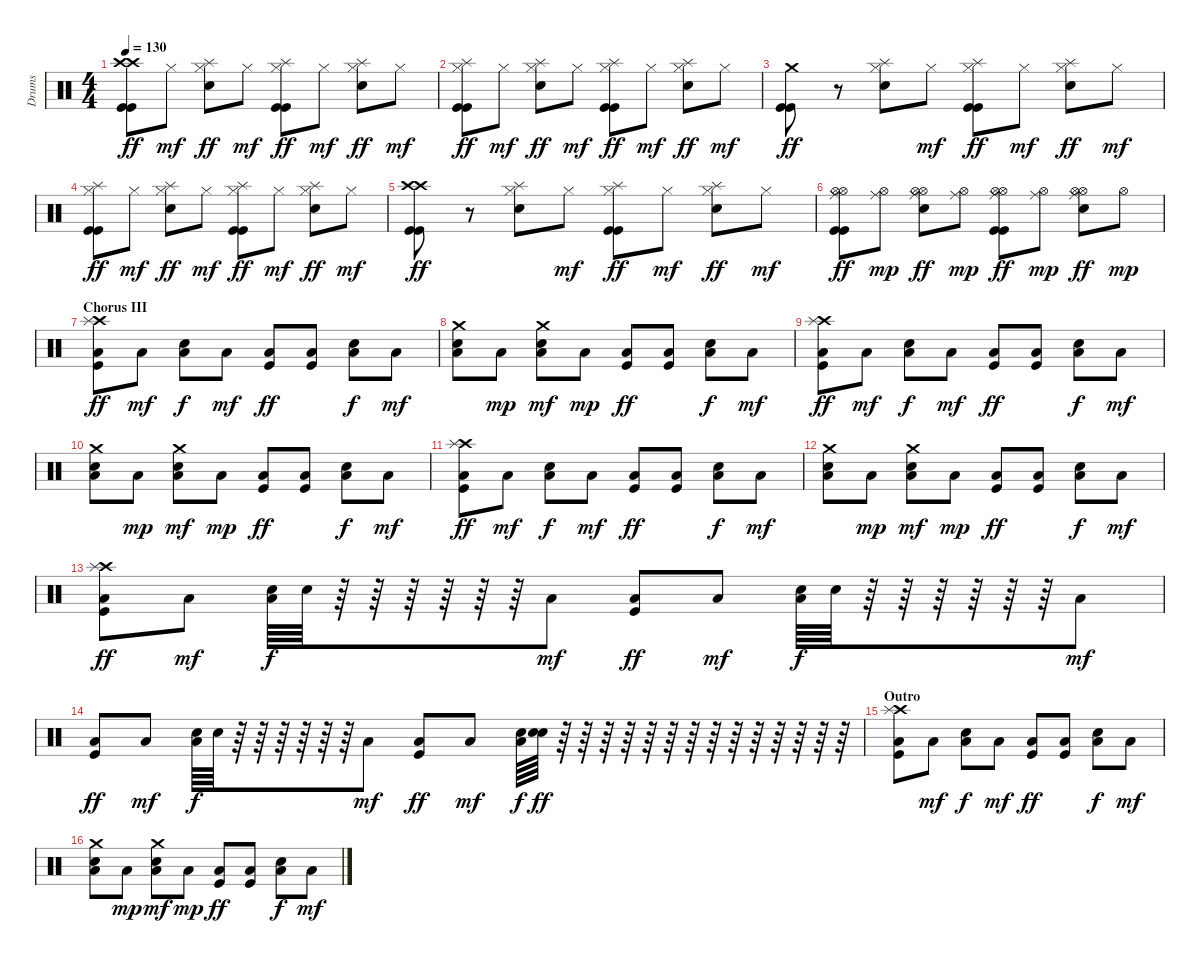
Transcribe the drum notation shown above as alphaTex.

\track ("Drums" "Drums") {instrument percussion}
\staff {score}
\articulation defaults
\ts (4 4)
\tempo 130
\clef neutral
\ks c
("Crash high (hit)" "Crash high (hit)" "Kick (hit)" "Kick (hit)").8{dy ff} "Hi-Hat (closed)".8{dy mf} ("Hi-Hat (closed)" "Splash (hit)" "Snare (hit) 2").8{dy ff} "Hi-Hat (closed)".8{dy mf} ("Hi-Hat (closed)" "Splash (hit)" "Kick (hit)" "Kick (hit)").8{dy ff} "Hi-Hat (closed)".8{dy mf} ("Hi-Hat (closed)" "Splash (hit)" "Snare (hit) 2").8{dy ff} "Hi-Hat (closed)".8{dy mf} |
("Hi-Hat (closed)" "Splash (hit)" "Kick (hit)" "Kick (hit)").8{dy ff} "Hi-Hat (closed)".8{dy mf} ("Hi-Hat (closed)" "Splash (hit)" "Snare (hit) 2").8{dy ff} "Hi-Hat (closed)".8{dy mf} ("Hi-Hat (closed)" "Splash (hit)" "Kick (hit)" "Kick (hit)").8{dy ff} "Hi-Hat (closed)".8{dy mf} ("Hi-Hat (closed)" "Splash (hit)" "Snare (hit) 2").8{dy ff} "Hi-Hat (closed)".8{dy mf} |
("Crash medium (hit)" "Kick (hit)" "Kick (hit)").8{dy ff} r.8 ("Hi-Hat (closed)" "Splash (hit)" "Snare (hit) 2").8 "Hi-Hat (closed)".8{dy mf} ("Hi-Hat (closed)" "Splash (hit)" "Kick (hit)" "Kick (hit)").8{dy ff} "Hi-Hat (closed)".8{dy mf} ("Hi-Hat (closed)" "Splash (hit)" "Snare (hit) 2").8{dy ff} "Hi-Hat (closed)".8{dy mf} |
("Hi-Hat (closed)" "Splash (hit)" "Kick (hit)" "Kick (hit)").8{dy ff} "Hi-Hat (closed)".8{dy mf} ("Hi-Hat (closed)" "Splash (hit)" "Snare (hit) 2").8{dy ff} "Hi-Hat (closed)".8{dy mf} ("Hi-Hat (closed)" "Splash (hit)" "Kick (hit)" "Kick (hit)").8{dy ff} "Hi-Hat (closed)".8{dy mf} ("Hi-Hat (closed)" "Splash (hit)" "Snare (hit) 2").8{dy ff} "Hi-Hat (closed)".8{dy mf} |
("Crash high (hit)" "Crash high (hit)" "Kick (hit)" "Kick (hit)").8{dy ff} r.8 ("Hi-Hat (closed)" "Splash (hit)" "Snare (hit) 2").8 "Hi-Hat (closed)".8{dy mf} ("Hi-Hat (closed)" "Splash (hit)" "Kick (hit)" "Kick (hit)").8{dy ff} "Hi-Hat (closed)".8{dy mf} ("Hi-Hat (closed)" "Splash (hit)" "Snare (hit) 2").8{dy ff} "Hi-Hat (closed)".8{dy mf} |
("Hi-Hat (open)" "Hi-Hat (open)" "Ride (middle)" "Kick (hit)" "Kick (hit)").8{dy ff} ("Hi-Hat (open)" "Ride (middle)").8{dy mp} ("Hi-Hat (open)" "Hi-Hat (open)" "Ride (middle)" "Snare (hit) 2").8{dy ff} ("Hi-Hat (open)" "Ride (middle)").8{dy mp} ("Hi-Hat (open)" "Hi-Hat (open)" "Ride (middle)" "Kick (hit)" "Kick (hit)").8{dy ff} ("Hi-Hat (open)" "Ride (middle)").8{dy mp} ("Hi-Hat (open)" "Hi-Hat (open)" "Ride (middle)" "Snare (hit) 2").8{dy ff} "Hi-Hat (open)".8{dy mp} |
\section ("" "Chorus III")
("Crash high (hit)" "Splash (hit)" "Low Floor Tom (hit)" "Kick (hit)").8{dy ff} "Low Floor Tom (hit)".8{dy mf} ("Snare (hit) 2" "Low Floor Tom (hit)").8{dy f} "Low Floor Tom (hit)".8{dy mf} ("Low Floor Tom (hit)" "Kick (hit)").8{dy ff} ("Low Floor Tom (hit)" "Kick (hit)").8 ("Snare (hit) 2" "Low Floor Tom (hit)").8{dy f} "Low Floor Tom (hit)".8{dy mf} |
("Crash medium (hit)" "Snare (hit) 2" "Low Floor Tom (hit)").8 "Low Floor Tom (hit)".8{dy mp} ("Crash medium (hit)" "Snare (hit) 2" "Low Floor Tom (hit)").8{dy mf} "Low Floor Tom (hit)".8{dy mp} ("Low Floor Tom (hit)" "Kick (hit)").8{dy ff} ("Low Floor Tom (hit)" "Kick (hit)").8 ("Snare (hit) 2" "Low Floor Tom (hit)").8{dy f} "Low Floor Tom (hit)".8{dy mf} |
("Crash high (hit)" "Splash (hit)" "Low Floor Tom (hit)" "Kick (hit)").8{dy ff} "Low Floor Tom (hit)".8{dy mf} ("Snare (hit) 2" "Low Floor Tom (hit)").8{dy f} "Low Floor Tom (hit)".8{dy mf} ("Low Floor Tom (hit)" "Kick (hit)").8{dy ff} ("Low Floor Tom (hit)" "Kick (hit)").8 ("Snare (hit) 2" "Low Floor Tom (hit)").8{dy f} "Low Floor Tom (hit)".8{dy mf} |
("Crash medium (hit)" "Snare (hit) 2" "Low Floor Tom (hit)").8 "Low Floor Tom (hit)".8{dy mp} ("Crash medium (hit)" "Snare (hit) 2" "Low Floor Tom (hit)").8{dy mf} "Low Floor Tom (hit)".8{dy mp} ("Low Floor Tom (hit)" "Kick (hit)").8{dy ff} ("Low Floor Tom (hit)" "Kick (hit)").8 ("Snare (hit) 2" "Low Floor Tom (hit)").8{dy f} "Low Floor Tom (hit)".8{dy mf} |
("Crash high (hit)" "Splash (hit)" "Low Floor Tom (hit)" "Kick (hit)").8{dy ff} "Low Floor Tom (hit)".8{dy mf} ("Snare (hit) 2" "Low Floor Tom (hit)").8{dy f} "Low Floor Tom (hit)".8{dy mf} ("Low Floor Tom (hit)" "Kick (hit)").8{dy ff} ("Low Floor Tom (hit)" "Kick (hit)").8 ("Snare (hit) 2" "Low Floor Tom (hit)").8{dy f} "Low Floor Tom (hit)".8{dy mf} |
("Crash medium (hit)" "Snare (hit) 2" "Low Floor Tom (hit)").8 "Low Floor Tom (hit)".8{dy mp} ("Crash medium (hit)" "Snare (hit) 2" "Low Floor Tom (hit)").8{dy mf} "Low Floor Tom (hit)".8{dy mp} ("Low Floor Tom (hit)" "Kick (hit)").8{dy ff} ("Low Floor Tom (hit)" "Kick (hit)").8 ("Snare (hit) 2" "Low Floor Tom (hit)").8{dy f} "Low Floor Tom (hit)".8{dy mf} |
("Crash high (hit)" "Splash (hit)" "Low Floor Tom (hit)" "Kick (hit)").8{dy ff} "Low Floor Tom (hit)".8{dy mf} ("Snare (hit) 2" "Low Floor Tom (hit)").64{dy f} "Snare (hit) 2".64 r.64 r.64 r.64 r.64 r.64 r.64 "Low Floor Tom (hit)".8{dy mf} ("Low Floor Tom (hit)" "Kick (hit)").8{dy ff} "Low Floor Tom (hit)".8{dy mf} ("Snare (hit) 2" "Low Floor Tom (hit)").64{dy f} "Snare (hit) 2".64 r.64 r.64 r.64 r.64 r.64 r.64 "Low Floor Tom (hit)".8{dy mf} |
("Low Floor Tom (hit)" "Kick (hit)").8{dy ff} "Low Floor Tom (hit)".8{dy mf} ("Snare (hit) 2" "Low Floor Tom (hit)").64{dy f} "Snare (hit) 2".64 r.64 r.64 r.64 r.64 r.64 r.64 "Low Floor Tom (hit)".8{dy mf} ("Low Floor Tom (hit)" "Kick (hit)").8{dy ff} "Low Floor Tom (hit)".8{dy mf} ("Snare (hit) 2" "Low Floor Tom (hit)").64{dy f} ("Snare (hit) 2" "Snare (hit) 2").64{dy ff} r.64 r.64 r.64 r.64 r.64 r.64 r.64 r.64 r.64 r.64 r.64 r.64 r.64 r.64 |
\section ("" "Outro")
("Crash high (hit)" "Splash (hit)" "Low Floor Tom (hit)" "Kick (hit)").8 "Low Floor Tom (hit)".8{dy mf} ("Snare (hit) 2" "Low Floor Tom (hit)").8{dy f} "Low Floor Tom (hit)".8{dy mf} ("Low Floor Tom (hit)" "Kick (hit)").8{dy ff} ("Low Floor Tom (hit)" "Kick (hit)").8 ("Snare (hit) 2" "Low Floor Tom (hit)").8{dy f} "Low Floor Tom (hit)".8{dy mf} |
("Crash medium (hit)" "Snare (hit) 2" "Low Floor Tom (hit)").8 "Low Floor Tom (hit)".8{dy mp} ("Crash medium (hit)" "Snare (hit) 2" "Low Floor Tom (hit)").8{dy mf} "Low Floor Tom (hit)".8{dy mp} ("Low Floor Tom (hit)" "Kick (hit)").8{dy ff} ("Low Floor Tom (hit)" "Kick (hit)").8 ("Snare (hit) 2" "Low Floor Tom (hit)").8{dy f} "Low Floor Tom (hit)".8{dy mf}
